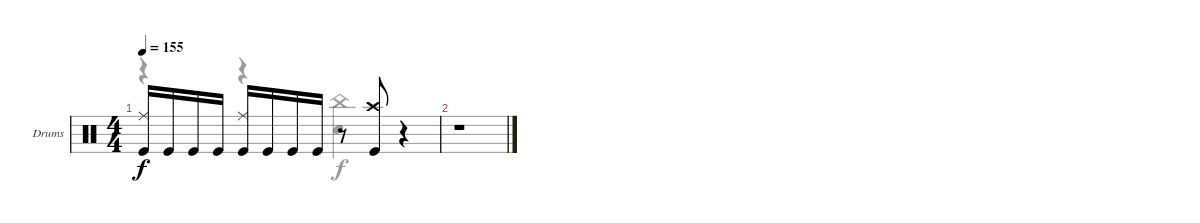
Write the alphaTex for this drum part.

\defaultSystemsLayout 4
\bracketExtendMode groupsimilarinstruments
\firstSystemTrackNameOrientation horizontal
\otherSystemsTrackNameOrientation horizontal
\track ("Drumkit" "Drums") {instrument percussion}
\staff {score}
\articulation defaults
\voice
\ts (4 4)
\tempo 155
\clef neutral
\ks c
("Kick (hit)" "Ride (middle)").16{dy f} "Kick (hit)".16 "Kick (hit)".16 "Kick (hit)".16 ("Kick (hit)" "Ride (middle)").16 "Kick (hit)".16 "Kick (hit)".16 "Kick (hit)".16 r.8 ("Kick (hit)" "Crash high (hit)").8 r.4 |
r.1
\voice
\clef neutral
\ottava regular
\simile none
\ks c
r.4{dy f} r.4 ("Snare (hit) 2" "China (hit)").4 r.4 |
